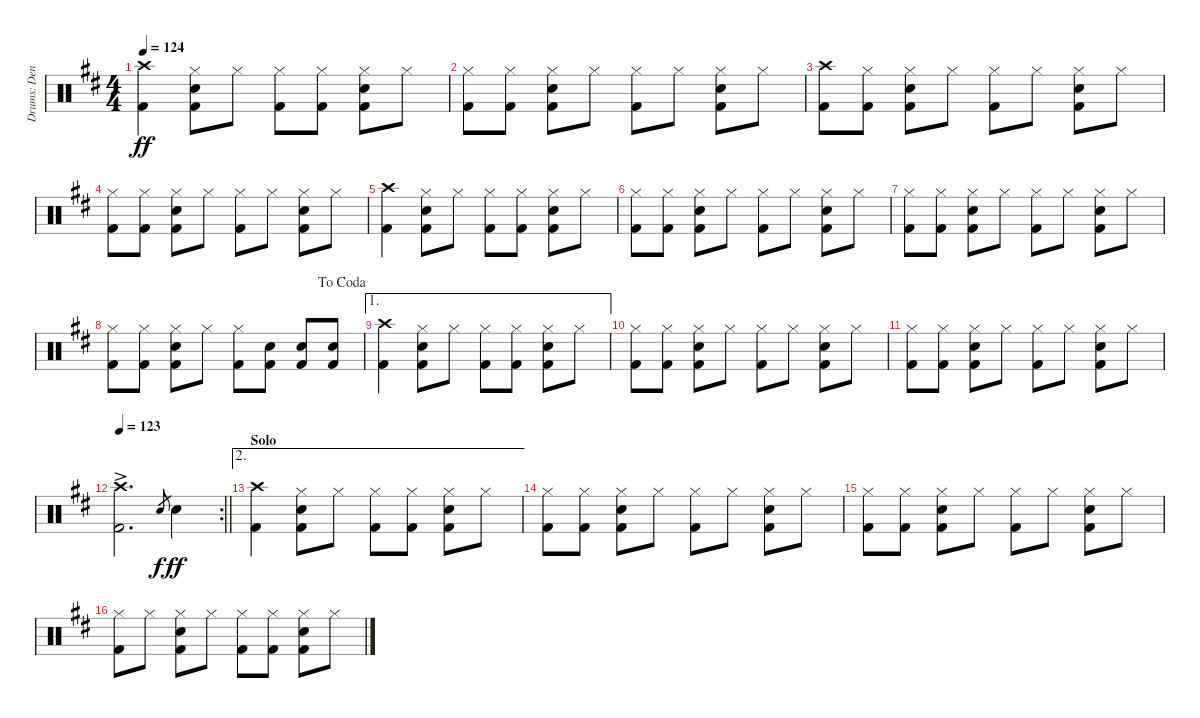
\track ("Drums: Denny" "Drums: Den") {instrument percussion}
\staff {score}
\articulation defaults
\ts (4 4)
\tempo 124
\clef neutral
\ks d
("Crash high (hit)" "Kick (hit) 2").4{dy ff} ("Hi-Hat (closed)" "Snare (hit) 2" "Kick (hit) 2").8 "Hi-Hat (closed)".8 ("Hi-Hat (closed)" "Kick (hit) 2").8 ("Hi-Hat (closed)" "Kick (hit) 2").8 ("Hi-Hat (closed)" "Snare (hit) 2" "Kick (hit) 2").8 "Hi-Hat (closed)".8 |
("Hi-Hat (closed)" "Kick (hit) 2").8 ("Hi-Hat (closed)" "Kick (hit) 2").8 ("Hi-Hat (closed)" "Snare (hit) 2" "Kick (hit) 2").8 "Hi-Hat (closed)".8 ("Hi-Hat (closed)" "Kick (hit) 2").8 "Hi-Hat (closed)".8 ("Hi-Hat (closed)" "Snare (hit) 2" "Kick (hit) 2").8 "Hi-Hat (closed)".8 |
("Crash high (hit)" "Kick (hit) 2").8 ("Hi-Hat (closed)" "Kick (hit) 2").8 ("Hi-Hat (closed)" "Snare (hit) 2" "Kick (hit) 2").8 "Hi-Hat (closed)".8 ("Hi-Hat (closed)" "Kick (hit) 2").8 "Hi-Hat (closed)".8 ("Hi-Hat (closed)" "Snare (hit) 2" "Kick (hit) 2").8 "Hi-Hat (closed)".8 |
("Hi-Hat (closed)" "Kick (hit) 2").8 ("Hi-Hat (closed)" "Kick (hit) 2").8 ("Hi-Hat (closed)" "Snare (hit) 2" "Kick (hit) 2").8 "Hi-Hat (closed)".8 ("Hi-Hat (closed)" "Kick (hit) 2").8 "Hi-Hat (closed)".8 ("Hi-Hat (closed)" "Snare (hit) 2" "Kick (hit) 2").8 "Hi-Hat (closed)".8 |
("Crash high (hit)" "Kick (hit) 2").4 ("Hi-Hat (closed)" "Snare (hit) 2" "Kick (hit) 2").8 "Hi-Hat (closed)".8 ("Hi-Hat (closed)" "Kick (hit) 2").8 ("Hi-Hat (closed)" "Kick (hit) 2").8 ("Hi-Hat (closed)" "Snare (hit) 2" "Kick (hit) 2").8 "Hi-Hat (closed)".8 |
("Hi-Hat (closed)" "Kick (hit) 2").8 ("Hi-Hat (closed)" "Kick (hit) 2").8 ("Hi-Hat (closed)" "Snare (hit) 2" "Kick (hit) 2").8 "Hi-Hat (closed)".8 ("Hi-Hat (closed)" "Kick (hit) 2").8 "Hi-Hat (closed)".8 ("Hi-Hat (closed)" "Snare (hit) 2" "Kick (hit) 2").8 "Hi-Hat (closed)".8 |
("Hi-Hat (closed)" "Kick (hit) 2").8 ("Hi-Hat (closed)" "Kick (hit) 2").8 ("Hi-Hat (closed)" "Snare (hit) 2" "Kick (hit) 2").8 "Hi-Hat (closed)".8 ("Hi-Hat (closed)" "Kick (hit) 2").8 "Hi-Hat (closed)".8 ("Hi-Hat (closed)" "Snare (hit) 2" "Kick (hit) 2").8 "Hi-Hat (closed)".8 |
\jump dacoda
("Hi-Hat (closed)" "Kick (hit) 2").8 ("Hi-Hat (closed)" "Kick (hit) 2").8 ("Hi-Hat (closed)" "Snare (hit) 2" "Kick (hit) 2").8 "Hi-Hat (closed)".8 ("Hi-Hat (closed)" "Kick (hit) 2").8 ("Snare (hit) 2" "Kick (hit) 2").8 ("Snare (hit) 2" "Kick (hit) 2").8 ("Snare (hit) 2" "Kick (hit) 2").8 |
\ae 1
("Crash high (hit)" "Kick (hit) 2").4 ("Hi-Hat (closed)" "Snare (hit) 2" "Kick (hit) 2").8 "Hi-Hat (closed)".8 ("Hi-Hat (closed)" "Kick (hit) 2").8 ("Hi-Hat (closed)" "Kick (hit) 2").8 ("Hi-Hat (closed)" "Snare (hit) 2" "Kick (hit) 2").8 "Hi-Hat (closed)".8 |
("Hi-Hat (closed)" "Kick (hit) 2").8 ("Hi-Hat (closed)" "Kick (hit) 2").8 ("Hi-Hat (closed)" "Snare (hit) 2" "Kick (hit) 2").8 "Hi-Hat (closed)".8 ("Hi-Hat (closed)" "Kick (hit) 2").8 "Hi-Hat (closed)".8 ("Hi-Hat (closed)" "Snare (hit) 2" "Kick (hit) 2").8 "Hi-Hat (closed)".8 |
("Hi-Hat (closed)" "Kick (hit) 2").8 ("Hi-Hat (closed)" "Kick (hit) 2").8 ("Hi-Hat (closed)" "Snare (hit) 2" "Kick (hit) 2").8 "Hi-Hat (closed)".8 ("Hi-Hat (closed)" "Kick (hit) 2").8 "Hi-Hat (closed)".8 ("Hi-Hat (closed)" "Snare (hit) 2" "Kick (hit) 2").8 "Hi-Hat (closed)".8 |
\rc 2
\tempo 123
\barLineRight lightlight
("Crash high (hit)"{ac} "Kick (hit) 2"{ac}).2{d} "Snare (hit) 2".8{gr dy f} "Snare (hit) 2".4{dy ff} |
\ae 2
\section ("" "Solo")
("Crash high (hit)" "Kick (hit) 2").4 ("Hi-Hat (closed)" "Snare (hit) 2" "Kick (hit) 2").8 "Hi-Hat (closed)".8 ("Hi-Hat (closed)" "Kick (hit) 2").8 ("Hi-Hat (closed)" "Kick (hit) 2").8 ("Hi-Hat (closed)" "Snare (hit) 2" "Kick (hit) 2").8 "Hi-Hat (closed)".8 |
("Hi-Hat (closed)" "Kick (hit) 2").8 ("Hi-Hat (closed)" "Kick (hit) 2").8 ("Hi-Hat (closed)" "Snare (hit) 2" "Kick (hit) 2").8 "Hi-Hat (closed)".8 ("Hi-Hat (closed)" "Kick (hit) 2").8 "Hi-Hat (closed)".8 ("Hi-Hat (closed)" "Snare (hit) 2" "Kick (hit) 2").8 "Hi-Hat (closed)".8 |
("Hi-Hat (closed)" "Kick (hit) 2").8 ("Hi-Hat (closed)" "Kick (hit) 2").8 ("Hi-Hat (closed)" "Snare (hit) 2" "Kick (hit) 2").8 "Hi-Hat (closed)".8 ("Hi-Hat (closed)" "Kick (hit) 2").8 "Hi-Hat (closed)".8 ("Hi-Hat (closed)" "Snare (hit) 2" "Kick (hit) 2").8 "Hi-Hat (closed)".8 |
("Hi-Hat (closed)" "Kick (hit) 2").8 "Hi-Hat (closed)".8 ("Hi-Hat (closed)" "Snare (hit) 2" "Kick (hit) 2").8 "Hi-Hat (closed)".8 ("Hi-Hat (closed)" "Kick (hit) 2").8 ("Hi-Hat (closed)" "Kick (hit) 2").8 ("Hi-Hat (closed)" "Snare (hit) 2" "Kick (hit) 2").8 "Hi-Hat (closed)".8
